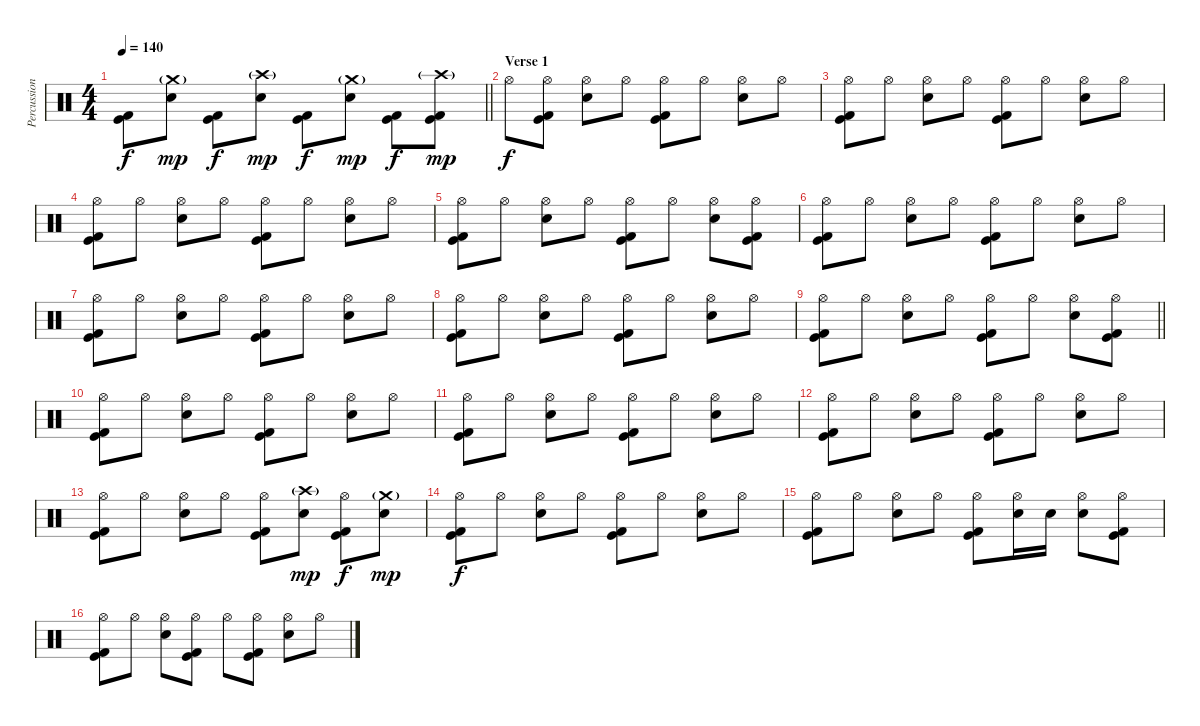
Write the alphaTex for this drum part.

\track ("Percussion" "Percussion") {instrument percussion}
\staff {score}
\articulation defaults
\ts (4 4)
\tempo 140
\clef neutral
\barLineRight lightlight
\ks c
("Kick (hit)" "Kick (hit) 2").8{dy f} ("Crash medium (hit)"{g} "Electric Snare (hit)").8{dy mp} ("Kick (hit)" "Kick (hit) 2").8{dy f} ("Crash high (hit)"{g} "Electric Snare (hit)").8{dy mp} ("Kick (hit)" "Kick (hit) 2").8{dy f} ("Crash medium (hit)"{g} "Electric Snare (hit)").8{dy mp} ("Kick (hit)" "Kick (hit) 2").8{dy f} ("Crash high (hit)"{g} "Kick (hit)" "Kick (hit) 2").8{dy mp} |
\section ("" "Verse 1")
"Hi-Hat (open)".8{dy f} ("Hi-Hat (open)" "Kick (hit)" "Kick (hit) 2").8 ("Hi-Hat (open)" "Electric Snare (hit)").8 "Hi-Hat (open)".8 ("Hi-Hat (open)" "Kick (hit)" "Kick (hit) 2").8 "Hi-Hat (open)".8 ("Hi-Hat (open)" "Electric Snare (hit)").8 "Hi-Hat (open)".8 |
("Hi-Hat (open)" "Kick (hit)" "Kick (hit) 2").8 "Hi-Hat (open)".8 ("Hi-Hat (open)" "Electric Snare (hit)").8 "Hi-Hat (open)".8 ("Hi-Hat (open)" "Kick (hit)" "Kick (hit) 2").8 "Hi-Hat (open)".8 ("Hi-Hat (open)" "Electric Snare (hit)").8 "Hi-Hat (open)".8 |
("Hi-Hat (open)" "Kick (hit)" "Kick (hit) 2").8 "Hi-Hat (open)".8 ("Hi-Hat (open)" "Electric Snare (hit)").8 "Hi-Hat (open)".8 ("Hi-Hat (open)" "Kick (hit)" "Kick (hit) 2").8 "Hi-Hat (open)".8 ("Hi-Hat (open)" "Electric Snare (hit)").8 "Hi-Hat (open)".8 |
("Hi-Hat (open)" "Kick (hit)" "Kick (hit) 2").8 "Hi-Hat (open)".8 ("Hi-Hat (open)" "Electric Snare (hit)").8 "Hi-Hat (open)".8 ("Hi-Hat (open)" "Kick (hit)" "Kick (hit) 2").8 "Hi-Hat (open)".8 ("Hi-Hat (open)" "Electric Snare (hit)").8 ("Hi-Hat (open)" "Kick (hit)" "Kick (hit) 2").8 |
("Hi-Hat (open)" "Kick (hit)" "Kick (hit) 2").8 "Hi-Hat (open)".8 ("Hi-Hat (open)" "Electric Snare (hit)").8 "Hi-Hat (open)".8 ("Hi-Hat (open)" "Kick (hit)" "Kick (hit) 2").8 "Hi-Hat (open)".8 ("Hi-Hat (open)" "Electric Snare (hit)").8 "Hi-Hat (open)".8 |
("Hi-Hat (open)" "Kick (hit)" "Kick (hit) 2").8 "Hi-Hat (open)".8 ("Hi-Hat (open)" "Electric Snare (hit)").8 "Hi-Hat (open)".8 ("Hi-Hat (open)" "Kick (hit)" "Kick (hit) 2").8 "Hi-Hat (open)".8 ("Hi-Hat (open)" "Electric Snare (hit)").8 "Hi-Hat (open)".8 |
("Hi-Hat (open)" "Kick (hit)" "Kick (hit) 2").8 "Hi-Hat (open)".8 ("Hi-Hat (open)" "Electric Snare (hit)").8 "Hi-Hat (open)".8 ("Hi-Hat (open)" "Kick (hit)" "Kick (hit) 2").8 "Hi-Hat (open)".8 ("Hi-Hat (open)" "Electric Snare (hit)").8 "Hi-Hat (open)".8 |
\barLineRight lightlight
("Hi-Hat (open)" "Kick (hit)" "Kick (hit) 2").8 "Hi-Hat (open)".8 ("Hi-Hat (open)" "Electric Snare (hit)").8 "Hi-Hat (open)".8 ("Hi-Hat (open)" "Kick (hit)" "Kick (hit) 2").8 "Hi-Hat (open)".8 ("Hi-Hat (open)" "Electric Snare (hit)").8 ("Hi-Hat (open)" "Kick (hit)" "Kick (hit) 2").8 |
\section ("" "")
("Hi-Hat (open)" "Kick (hit)" "Kick (hit) 2").8 "Hi-Hat (open)".8 ("Hi-Hat (open)" "Electric Snare (hit)").8 "Hi-Hat (open)".8 ("Hi-Hat (open)" "Kick (hit)" "Kick (hit) 2").8 "Hi-Hat (open)".8 ("Hi-Hat (open)" "Electric Snare (hit)").8 "Hi-Hat (open)".8 |
("Hi-Hat (open)" "Kick (hit)" "Kick (hit) 2").8 "Hi-Hat (open)".8 ("Hi-Hat (open)" "Electric Snare (hit)").8 "Hi-Hat (open)".8 ("Hi-Hat (open)" "Kick (hit)" "Kick (hit) 2").8 "Hi-Hat (open)".8 ("Hi-Hat (open)" "Electric Snare (hit)").8 "Hi-Hat (open)".8 |
("Hi-Hat (open)" "Kick (hit)" "Kick (hit) 2").8 "Hi-Hat (open)".8 ("Hi-Hat (open)" "Electric Snare (hit)").8 "Hi-Hat (open)".8 ("Hi-Hat (open)" "Kick (hit)" "Kick (hit) 2").8 "Hi-Hat (open)".8 ("Hi-Hat (open)" "Electric Snare (hit)").8 "Hi-Hat (open)".8 |
("Hi-Hat (open)" "Kick (hit)" "Kick (hit) 2").8 "Hi-Hat (open)".8 ("Hi-Hat (open)" "Electric Snare (hit)").8 "Hi-Hat (open)".8 ("Hi-Hat (open)" "Kick (hit)" "Kick (hit) 2").8 ("Crash high (hit)"{g} "Electric Snare (hit)").8{dy mp} ("Hi-Hat (open)" "Kick (hit)" "Kick (hit) 2").8{dy f} ("Crash medium (hit)"{g} "Electric Snare (hit)").8{dy mp} |
("Hi-Hat (open)" "Kick (hit)" "Kick (hit) 2").8{dy f} "Hi-Hat (open)".8 ("Hi-Hat (open)" "Electric Snare (hit)").8 "Hi-Hat (open)".8 ("Hi-Hat (open)" "Kick (hit)" "Kick (hit) 2").8 "Hi-Hat (open)".8 ("Hi-Hat (open)" "Electric Snare (hit)").8 "Hi-Hat (open)".8 |
("Hi-Hat (open)" "Kick (hit)" "Kick (hit) 2").8 "Hi-Hat (open)".8 ("Hi-Hat (open)" "Electric Snare (hit)").8 "Hi-Hat (open)".8 ("Hi-Hat (open)" "Kick (hit)" "Kick (hit) 2").8 ("Hi-Hat (open)" "Electric Snare (hit)").16 "Electric Snare (hit)".16 ("Hi-Hat (open)" "Electric Snare (hit)").8 ("Hi-Hat (open)" "Kick (hit)" "Kick (hit) 2").8 |
("Hi-Hat (open)" "Kick (hit)" "Kick (hit) 2").8 "Hi-Hat (open)".8 ("Hi-Hat (open)" "Electric Snare (hit)").8 ("Hi-Hat (open)" "Kick (hit)" "Kick (hit) 2").8 "Hi-Hat (open)".8 ("Hi-Hat (open)" "Kick (hit)" "Kick (hit) 2").8 ("Hi-Hat (open)" "Electric Snare (hit)").8 "Hi-Hat (open)".8
